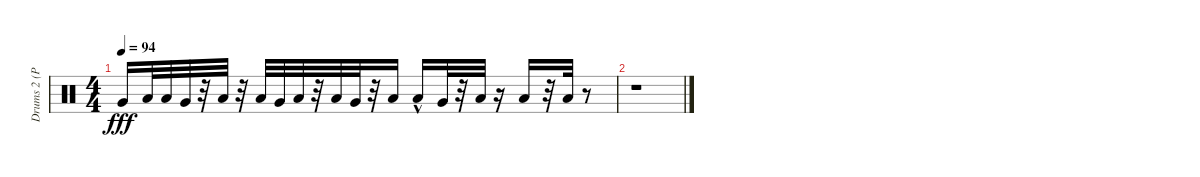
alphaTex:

\track ("Drums 2 (Power)" "Drums 2 (P") {instrument percussion}
\staff {score}
\articulation defaults
\ts (4 4)
\tempo 94
\clef neutral
\ks c "Very Low Tom (hit)".16{dy fff} "Low Floor Tom (hit)".32 "Low Tom (hit)".32 "Very Low Tom (hit)".32
r.32 "Low Floor Tom (hit)".32 r.32 "Low Tom (hit)".32 "Very Low Tom (hit)".32 "Low Floor Tom (hit)".32 r.32 "Low Tom (hit)".32 "Very Low Tom (hit)".32 r.32 "Low Floor Tom (hit)".16 "Low Tom (hit)"{hac}.16 "Very Low Tom (hit)".32 r.32 "Low Floor Tom (hit)".32 r.16 "Low Floor Tom (hit)".16 r.32 "Low Floor Tom (hit)".32 r.8 |
r.1
